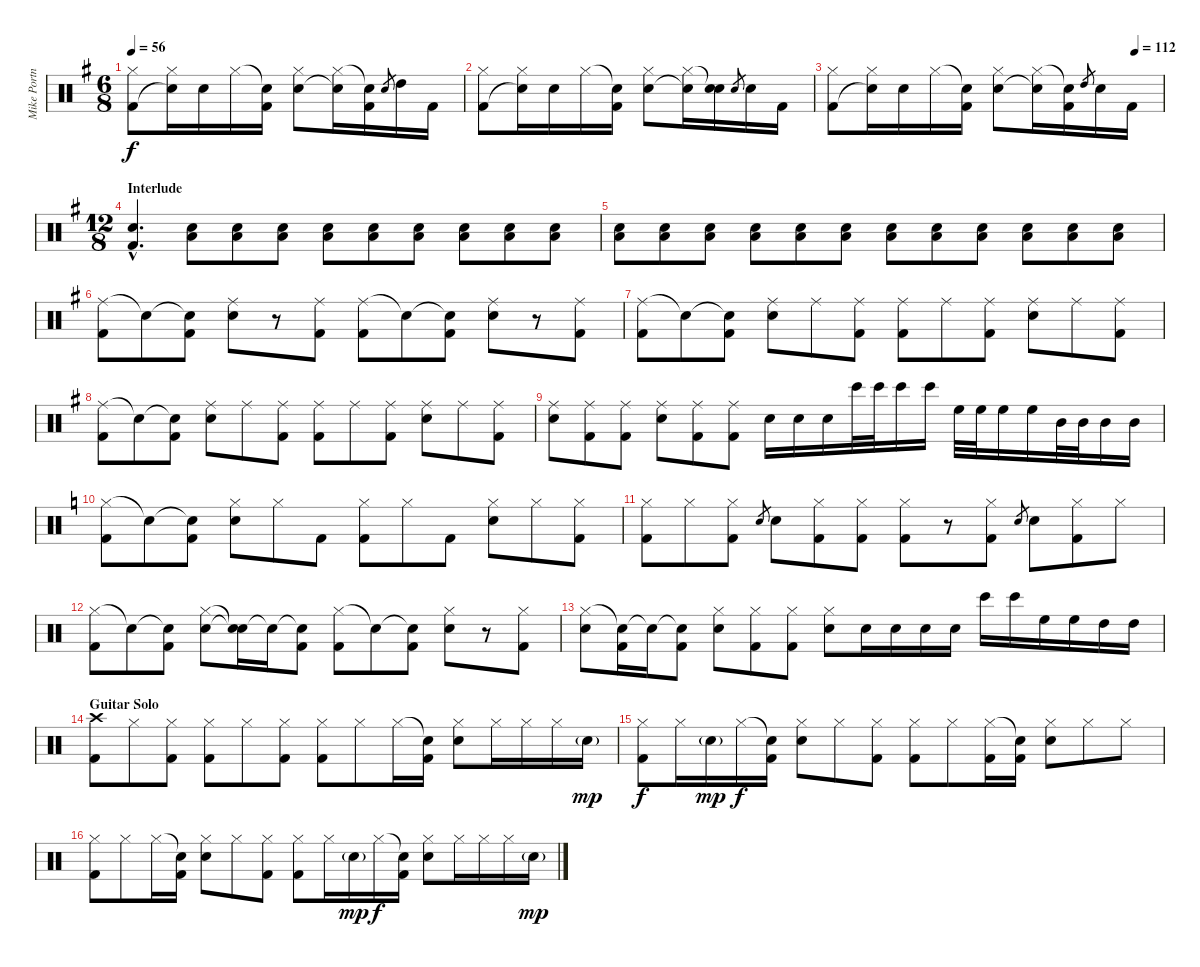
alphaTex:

\track ("Mike Portnoy" "Mike Portn") {instrument percussion}
\staff {score}
\articulation defaults
\ts (6 8)
\tempo 56
\clef neutral
\ks g
("Hi-Hat (closed)" "Kick (hit) 2").8{dy f} ("Hi-Hat (closed)" "Snare (hit)"{t}).16 "Snare (hit) 2".16 "Hi-Hat (closed)".16 ("Snare (hit)"{t} "Kick (hit) 2").16 ("Hi-Hat (closed)" "Snare (hit) 2").8 ("Hi-Hat (closed)" "Snare (hit)"{t}).16 ("Snare (hit)"{t} "Kick (hit) 2").16 "Snare (hit) 2".8{gr} "High Tom (hit)".16 "Kick (hit) 2".16 |
("Hi-Hat (closed)" "Kick (hit) 2").8 ("Hi-Hat (closed)" "Snare (hit)"{t}).16 "Snare (hit) 2".16 "Hi-Hat (closed)".16 ("Snare (hit)"{t} "Kick (hit) 2").16 ("Hi-Hat (closed)" "Snare (hit) 2").8 ("Hi-Hat (closed)" "Snare (hit)"{t}).16 ("Snare (hit)"{t} "Snare (hit) 2").16 "Snare (hit) 2".8{gr} "Snare (hit) 2".16 "Kick (hit) 2".16 |
\tempo (112 0.9166666666666666)
("Hi-Hat (closed)" "Kick (hit) 2").8 ("Hi-Hat (closed)" "Snare (hit)"{t}).16 "Snare (hit) 2".16 "Hi-Hat (closed)".16 ("Snare (hit)"{t} "Kick (hit) 2").16 ("Hi-Hat (closed)" "Snare (hit) 2").8 ("Hi-Hat (closed)" "Snare (hit)"{t}).16 ("Snare (hit)"{t} "Kick (hit) 2").16 "High Tom (hit)".8{gr} "Snare (hit) 2".16 "Kick (hit) 2".16 |
\ts (12 8)
\section ("" "Interlude")
("Snare (hit) 2"{hac} "Kick (hit) 2"{hac}).4{d} ("Low Tom (hit)" "Snare (hit) 2").8 ("Low Tom (hit)" "Snare (hit) 2").8 ("Low Tom (hit)" "Snare (hit) 2").8 ("Low Tom (hit)" "Snare (hit) 2").8 ("Low Tom (hit)" "Snare (hit) 2").8 ("Low Tom (hit)" "Snare (hit) 2").8 ("Low Tom (hit)" "Snare (hit) 2").8 ("Low Tom (hit)" "Snare (hit) 2").8 ("Low Tom (hit)" "Snare (hit) 2").8 |
("Low Tom (hit)" "Snare (hit) 2").8 ("Low Tom (hit)" "Snare (hit) 2").8 ("Low Tom (hit)" "Snare (hit) 2").8 ("Low Tom (hit)" "Snare (hit) 2").8 ("Low Tom (hit)" "Snare (hit) 2").8 ("Low Tom (hit)" "Snare (hit) 2").8 ("Low Tom (hit)" "Snare (hit) 2").8 ("Low Tom (hit)" "Snare (hit) 2").8 ("Low Tom (hit)" "Snare (hit) 2").8 ("Low Tom (hit)" "Snare (hit) 2").8 ("Low Tom (hit)" "Snare (hit) 2").8 ("Low Tom (hit)" "Snare (hit) 2").8 |
("Ride (middle)" "Kick (hit) 2").8 "Snare (hit)"{t}.8 ("Snare (hit)"{t} "Kick (hit) 2").8 ("Ride (middle)" "Snare (hit) 2").8 r.8 ("Ride (middle)" "Kick (hit) 2").8 ("Ride (middle)" "Kick (hit) 2").8 "Snare (hit)"{t}.8 ("Snare (hit)"{t} "Kick (hit) 2").8 ("Ride (middle)" "Snare (hit) 2").8 r.8 ("Ride (middle)" "Kick (hit) 2").8 |
("Ride (middle)" "Kick (hit) 2").8 "Snare (hit)"{t}.8 ("Snare (hit)"{t} "Kick (hit) 2").8 ("Ride (middle)" "Snare (hit) 2").8 "Ride (middle)".8 ("Ride (middle)" "Kick (hit) 2").8 ("Ride (middle)" "Kick (hit) 2").8 "Ride (middle)".8 ("Ride (middle)" "Kick (hit) 2").8 ("Ride (middle)" "Snare (hit) 2").8 "Ride (middle)".8 ("Ride (middle)" "Kick (hit) 2").8 |
("Ride (middle)" "Kick (hit) 2").8 "Snare (hit)"{t}.8 ("Snare (hit)"{t} "Kick (hit) 2").8 ("Ride (middle)" "Snare (hit) 2").8 "Ride (middle)".8 ("Ride (middle)" "Kick (hit) 2").8 ("Ride (middle)" "Kick (hit) 2").8 "Ride (middle)".8 ("Ride (middle)" "Kick (hit) 2").8 ("Ride (middle)" "Snare (hit) 2").8 "Ride (middle)".8 ("Ride (middle)" "Kick (hit) 2").8 |
("Ride (middle)" "Snare (hit) 2").8 ("Ride (middle)" "Kick (hit) 2").8 ("Ride (middle)" "Kick (hit) 2").8 ("Ride (middle)" "Snare (hit) 2").8 ("Ride (middle)" "Kick (hit) 2").8 ("Ride (middle)" "Kick (hit) 2").8 "Snare (hit) 2".16 "Snare (hit) 2".16 "Snare (hit) 2".16 "Bongo High (hit)".32 "Bongo High (hit)".32 "Bongo High (hit)".16 "Bongo High (hit)".16 "High Floor Tom (hit)".32 "High Floor Tom (hit)".32 "High Floor Tom (hit)".16 "High Floor Tom (hit)".16 "Mid Tom (hit)".32 "Mid Tom (hit)".32 "Mid Tom (hit)".16 "Mid Tom (hit)".16 |
\ks c
("Hi-Hat (closed)" "Kick (hit) 2").8 "Snare (hit)"{t}.8 ("Snare (hit)"{t} "Kick (hit) 2").8 ("Hi-Hat (closed)" "Snare (hit) 2").8 "Hi-Hat (closed)".8 "Kick (hit) 2".8 ("Hi-Hat (closed)" "Kick (hit) 2").8 "Hi-Hat (closed)".8 "Kick (hit) 2".8 ("Hi-Hat (closed)" "Snare (hit) 2").8 "Hi-Hat (closed)".8 ("Hi-Hat (closed)" "Kick (hit) 2").8 |
("Hi-Hat (closed)" "Kick (hit) 2").8 "Hi-Hat (closed)".8 ("Hi-Hat (closed)" "Kick (hit) 2").8 "Snare (hit) 2".8{gr} "Snare (hit) 2".8 ("Hi-Hat (closed)" "Kick (hit) 2").8 ("Hi-Hat (closed)" "Kick (hit) 2").8 ("Hi-Hat (closed)" "Kick (hit) 2").8 r.8 ("Hi-Hat (closed)" "Kick (hit) 2").8 "Snare (hit) 2".8{gr} "Snare (hit) 2".8 ("Hi-Hat (closed)" "Kick (hit) 2").8 "Hi-Hat (closed)".8 |
("Hi-Hat (closed)" "Kick (hit) 2").8 "Snare (hit)"{t}.8 ("Snare (hit)"{t} "Kick (hit) 2").8 ("Hi-Hat (closed)" "Snare (hit) 2").8 ("Snare (hit)"{t} "Snare (hit)"{t}).16 "Snare (hit)"{t}.16 ("Snare (hit)"{t} "Kick (hit) 2").8 ("Hi-Hat (closed)" "Kick (hit) 2").8 "Snare (hit)"{t}.8 ("Snare (hit)"{t} "Kick (hit) 2").8 ("Hi-Hat (closed)" "Snare (hit) 2").8 r.8 ("Hi-Hat (closed)" "Kick (hit) 2").8 |
("Hi-Hat (closed)" "Snare (hit) 2").8 ("Snare (hit)"{t} "Kick (hit) 2").16 "Snare (hit)"{t}.16 ("Snare (hit)"{t} "Kick (hit) 2").8 ("Hi-Hat (closed)" "Snare (hit) 2").8 ("Hi-Hat (closed)" "Kick (hit) 2").8 ("Hi-Hat (closed)" "Kick (hit) 2").8 ("Hi-Hat (closed)" "Snare (hit) 2").8 "Snare (hit) 2".16 "Snare (hit) 2".16 "Snare (hit) 2".16 "Snare (hit) 2".16 "Bongo High (hit)".16 "Bongo High (hit)".16 "High Floor Tom (hit)".16 "High Floor Tom (hit)".16 "High Tom (hit)".16 "High Tom (hit)".16 |
\section ("" "Guitar Solo")
("Crash high (hit)" "Kick (hit) 2").8 "Hi-Hat (closed)".8 ("Hi-Hat (closed)" "Kick (hit) 2").8 ("Hi-Hat (closed)" "Kick (hit) 2").8 "Hi-Hat (closed)".8 ("Hi-Hat (closed)" "Kick (hit) 2").8 ("Hi-Hat (closed)" "Kick (hit) 2").8 "Hi-Hat (closed)".8 "Hi-Hat (closed)".16 ("Snare (hit)"{t} "Kick (hit) 2").16 ("Hi-Hat (closed)" "Snare (hit) 2").8 "Hi-Hat (closed)".16 "Hi-Hat (closed)".16 "Hi-Hat (closed)".16 "Snare (hit) 2"{g}.16{dy mp} |
("Hi-Hat (closed)" "Kick (hit) 2").8{dy f} "Hi-Hat (closed)".16 "Snare (hit) 2"{g}.16{dy mp} "Hi-Hat (closed)".16{dy f} ("Snare (hit)"{t} "Kick (hit) 2").16 ("Hi-Hat (closed)" "Snare (hit) 2").8 "Hi-Hat (closed)".8 ("Hi-Hat (closed)" "Kick (hit) 2").8 ("Hi-Hat (closed)" "Kick (hit) 2").8 "Hi-Hat (closed)".8 ("Hi-Hat (closed)" "Kick (hit) 2").16 ("Snare (hit)"{t} "Kick (hit) 2").16 ("Hi-Hat (closed)" "Snare (hit) 2").8 "Hi-Hat (closed)".8 "Hi-Hat (closed)".8 |
("Hi-Hat (closed)" "Kick (hit) 2").8 "Hi-Hat (closed)".8 "Hi-Hat (closed)".16 ("Snare (hit)"{t} "Kick (hit) 2").16 ("Hi-Hat (closed)" "Snare (hit) 2").8 "Hi-Hat (closed)".8 ("Hi-Hat (closed)" "Kick (hit) 2").8 ("Hi-Hat (closed)" "Kick (hit) 2").8 "Hi-Hat (closed)".16 "Snare (hit) 2"{g}.16{dy mp} "Hi-Hat (closed)".16{dy f} ("Snare (hit)"{t} "Kick (hit) 2").16 ("Hi-Hat (closed)" "Snare (hit) 2").8 "Hi-Hat (closed)".16 "Hi-Hat (closed)".16 "Hi-Hat (closed)".16 "Snare (hit) 2"{g}.16{dy mp}
